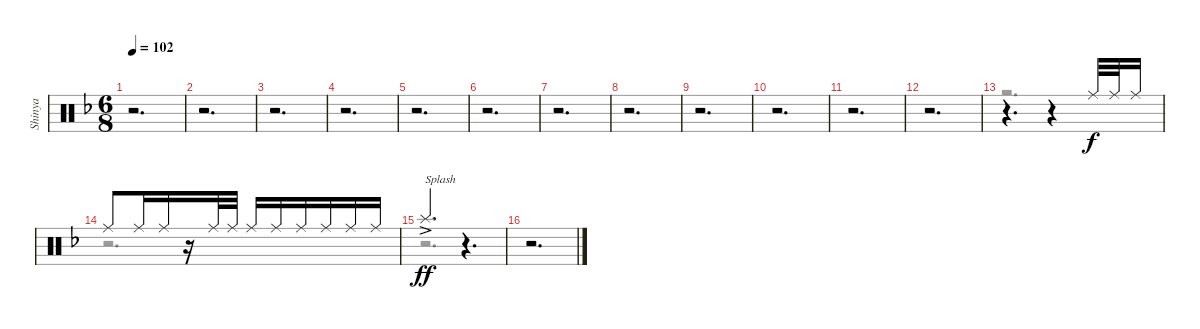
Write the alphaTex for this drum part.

\track ("Shinya" "Shinya") {mute instrument percussion}
\staff {score}
\articulation defaults
\voice
\ts (6 8)
\tempo 102
\clef neutral
\ks f
r.2{d dy f} |
r.2{d} |
r.2{d} |
r.2{d} |
r.2{d} |
r.2{d} |
r.2{d} |
r.2{d} |
r.2{d} |
r.2{d} |
r.2{d} |
r.2{d} |
r.4{d} r.4 "Ride (middle)".32{beam merge} "Ride (middle)".32{beam merge} "Ride (middle)".16 |
"Ride (middle)".8 "Ride (middle)".16{beam merge} "Ride (middle)".16 r.16{beam merge} "Ride (middle)".32{beam merge} "Ride (middle)".32 "Ride (middle)".16 "Ride (middle)".16{beam merge} "Ride (middle)".16 "Ride (middle)".16{beam merge} "Ride (middle)".16 "Ride (middle)".16 |
"Splash (hit)"{ac}.4{d txt "Splash" dy ff} r.4{d} |
r.2{d}
\voice
\clef neutral
\ottava regular
\simile none
\ks f
r.2{d dy f} |
r.2{d} |
r.2{d} |
r.2{d} |
r.2{d} |
r.2{d} |
r.2{d} |
r.2{d} |
r.2{d} |
r.2{d} |
r.2{d} |
r.2{d} |
r.2{d} |
r.2{d} |
r.2{d} |
r.2{d}
